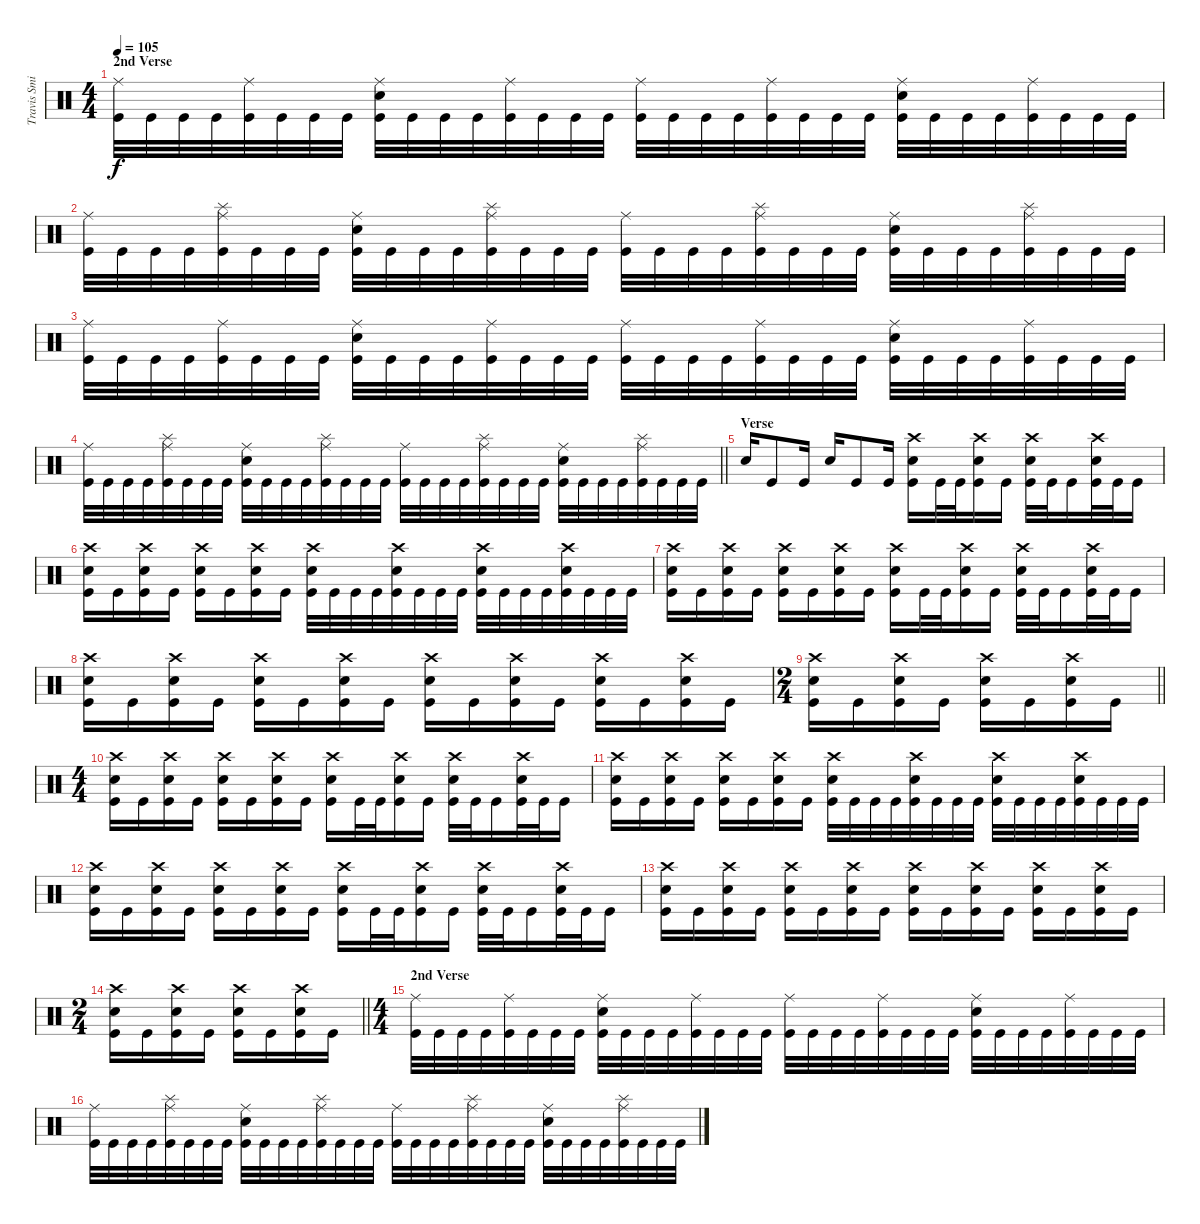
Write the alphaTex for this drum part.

\track ("Travis Smith" "Travis Smi") {instrument percussion}
\staff {score}
\articulation defaults
\ts (4 4)
\section ("" "2nd Verse")
\tempo 105
\clef neutral
\ks c
("Ride (middle)" "Kick (hit)").32{dy f} "Kick (hit)".32 "Kick (hit)".32 "Kick (hit)".32 ("Ride (middle)" "Kick (hit)").32 "Kick (hit)".32 "Kick (hit)".32 "Kick (hit)".32 ("Ride (middle)" "Snare (hit) 2" "Kick (hit)").32 "Kick (hit)".32 "Kick (hit)".32 "Kick (hit)".32 ("Ride (middle)" "Kick (hit)").32 "Kick (hit)".32 "Kick (hit)".32 "Kick (hit)".32 ("Ride (middle)" "Kick (hit)").32 "Kick (hit)".32 "Kick (hit)".32 "Kick (hit)".32 ("Ride (middle)" "Kick (hit)").32 "Kick (hit)".32 "Kick (hit)".32 "Kick (hit)".32 ("Ride (middle)" "Snare (hit) 2" "Kick (hit)").32 "Kick (hit)".32 "Kick (hit)".32 "Kick (hit)".32 ("Ride (middle)" "Kick (hit)").32 "Kick (hit)".32 "Kick (hit)".32 "Kick (hit)".32 |
("Ride (middle)" "Kick (hit)").32 "Kick (hit)".32 "Kick (hit)".32 "Kick (hit)".32 ("Ride (middle)" "Splash (hit)" "Kick (hit)").32 "Kick (hit)".32 "Kick (hit)".32 "Kick (hit)".32 ("Ride (middle)" "Snare (hit) 2" "Kick (hit)").32 "Kick (hit)".32 "Kick (hit)".32 "Kick (hit)".32 ("Ride (middle)" "Splash (hit)" "Kick (hit)").32 "Kick (hit)".32 "Kick (hit)".32 "Kick (hit)".32 ("Ride (middle)" "Kick (hit)").32 "Kick (hit)".32 "Kick (hit)".32 "Kick (hit)".32 ("Ride (middle)" "Splash (hit)" "Kick (hit)").32 "Kick (hit)".32 "Kick (hit)".32 "Kick (hit)".32 ("Ride (middle)" "Snare (hit) 2" "Kick (hit)").32 "Kick (hit)".32 "Kick (hit)".32 "Kick (hit)".32 ("Ride (middle)" "Splash (hit)" "Kick (hit)").32 "Kick (hit)".32 "Kick (hit)".32 "Kick (hit)".32 |
("Ride (middle)" "Kick (hit)").32 "Kick (hit)".32 "Kick (hit)".32 "Kick (hit)".32 ("Ride (middle)" "Kick (hit)").32 "Kick (hit)".32 "Kick (hit)".32 "Kick (hit)".32 ("Ride (middle)" "Snare (hit) 2" "Kick (hit)").32 "Kick (hit)".32 "Kick (hit)".32 "Kick (hit)".32 ("Ride (middle)" "Kick (hit)").32 "Kick (hit)".32 "Kick (hit)".32 "Kick (hit)".32 ("Ride (middle)" "Kick (hit)").32 "Kick (hit)".32 "Kick (hit)".32 "Kick (hit)".32 ("Ride (middle)" "Kick (hit)").32 "Kick (hit)".32 "Kick (hit)".32 "Kick (hit)".32 ("Ride (middle)" "Snare (hit) 2" "Kick (hit)").32 "Kick (hit)".32 "Kick (hit)".32 "Kick (hit)".32 ("Ride (middle)" "Kick (hit)").32 "Kick (hit)".32 "Kick (hit)".32 "Kick (hit)".32 |
\barLineRight lightlight
("Ride (middle)" "Kick (hit)").32 "Kick (hit)".32 "Kick (hit)".32 "Kick (hit)".32 ("Ride (middle)" "Splash (hit)" "Kick (hit)").32 "Kick (hit)".32 "Kick (hit)".32 "Kick (hit)".32 ("Ride (middle)" "Snare (hit) 2" "Kick (hit)").32 "Kick (hit)".32 "Kick (hit)".32 "Kick (hit)".32 ("Ride (middle)" "Splash (hit)" "Kick (hit)").32 "Kick (hit)".32 "Kick (hit)".32 "Kick (hit)".32 ("Ride (middle)" "Kick (hit)").32 "Kick (hit)".32 "Kick (hit)".32 "Kick (hit)".32 ("Ride (middle)" "Splash (hit)" "Kick (hit)").32 "Kick (hit)".32 "Kick (hit)".32 "Kick (hit)".32 ("Ride (middle)" "Snare (hit) 2" "Kick (hit)").32 "Kick (hit)".32 "Kick (hit)".32 "Kick (hit)".32 ("Ride (middle)" "Splash (hit)" "Kick (hit)").32 "Kick (hit)".32 "Kick (hit)".32 "Kick (hit)".32 |
\section ("" "Verse")
"Snare (hit) 2".16 "Kick (hit)".8 "Kick (hit)".16 "Snare (hit) 2".16 "Kick (hit)".8 "Kick (hit)".16 ("Crash high (hit)" "Snare (hit) 2" "Kick (hit)").16 "Kick (hit)".32 "Kick (hit)".32 ("Crash high (hit)" "Snare (hit) 2" "Kick (hit)").16 "Kick (hit)".16 ("Crash high (hit)" "Snare (hit) 2" "Kick (hit)").32 "Kick (hit)".32 "Kick (hit)".16 ("Crash high (hit)" "Snare (hit) 2" "Kick (hit)").32 "Kick (hit)".32 "Kick (hit)".16 |
("Crash high (hit)" "Snare (hit) 2" "Kick (hit)").16 "Kick (hit)".16 ("Crash high (hit)" "Snare (hit) 2" "Kick (hit)").16 "Kick (hit)".16 ("Crash high (hit)" "Snare (hit) 2" "Kick (hit)").16 "Kick (hit)".16 ("Crash high (hit)" "Snare (hit) 2" "Kick (hit)").16 "Kick (hit)".16 ("Crash high (hit)" "Snare (hit) 2" "Kick (hit)").32 "Kick (hit)".32 "Kick (hit)".32 "Kick (hit)".32 ("Crash high (hit)" "Snare (hit) 2" "Kick (hit)").32 "Kick (hit)".32 "Kick (hit)".32 "Kick (hit)".32 ("Crash high (hit)" "Snare (hit) 2" "Kick (hit)").32 "Kick (hit)".32 "Kick (hit)".32 "Kick (hit)".32 ("Crash high (hit)" "Snare (hit) 2" "Kick (hit)").32 "Kick (hit)".32 "Kick (hit)".32 "Kick (hit)".32 |
("Crash high (hit)" "Snare (hit) 2" "Kick (hit)").16 "Kick (hit)".16 ("Crash high (hit)" "Snare (hit) 2" "Kick (hit)").16 "Kick (hit)".16 ("Crash high (hit)" "Snare (hit) 2" "Kick (hit)").16 "Kick (hit)".16 ("Crash high (hit)" "Snare (hit) 2" "Kick (hit)").16 "Kick (hit)".16 ("Crash high (hit)" "Snare (hit) 2" "Kick (hit)").16 "Kick (hit)".32 "Kick (hit)".32 ("Crash high (hit)" "Snare (hit) 2" "Kick (hit)").16 "Kick (hit)".16 ("Crash high (hit)" "Snare (hit) 2" "Kick (hit)").32 "Kick (hit)".32 "Kick (hit)".16 ("Crash high (hit)" "Snare (hit) 2" "Kick (hit)").32 "Kick (hit)".32 "Kick (hit)".16 |
("Crash high (hit)" "Snare (hit) 2" "Kick (hit)").16 "Kick (hit)".16 ("Crash high (hit)" "Snare (hit) 2" "Kick (hit)").16 "Kick (hit)".16 ("Crash high (hit)" "Snare (hit) 2" "Kick (hit)").16 "Kick (hit)".16 ("Crash high (hit)" "Snare (hit) 2" "Kick (hit)").16 "Kick (hit)".16 ("Crash high (hit)" "Snare (hit) 2" "Kick (hit)").16 "Kick (hit)".16 ("Crash high (hit)" "Snare (hit) 2" "Kick (hit)").16 "Kick (hit)".16 ("Crash high (hit)" "Snare (hit) 2" "Kick (hit)").16 "Kick (hit)".16 ("Crash high (hit)" "Snare (hit) 2" "Kick (hit)").16 "Kick (hit)".16 |
\ts (2 4)
\barLineRight lightlight
("Crash high (hit)" "Snare (hit) 2" "Kick (hit)").16 "Kick (hit)".16 ("Crash high (hit)" "Snare (hit) 2" "Kick (hit)").16 "Kick (hit)".16 ("Crash high (hit)" "Snare (hit) 2" "Kick (hit)").16 "Kick (hit)".16 ("Crash high (hit)" "Snare (hit) 2" "Kick (hit)").16 "Kick (hit)".16 |
\ts (4 4)
("Crash high (hit)" "Snare (hit) 2" "Kick (hit)").16 "Kick (hit)".16 ("Crash high (hit)" "Snare (hit) 2" "Kick (hit)").16 "Kick (hit)".16 ("Crash high (hit)" "Snare (hit) 2" "Kick (hit)").16 "Kick (hit)".16 ("Crash high (hit)" "Snare (hit) 2" "Kick (hit)").16 "Kick (hit)".16 ("Crash high (hit)" "Snare (hit) 2" "Kick (hit)").16 "Kick (hit)".32 "Kick (hit)".32 ("Crash high (hit)" "Snare (hit) 2" "Kick (hit)").16 "Kick (hit)".16 ("Crash high (hit)" "Snare (hit) 2" "Kick (hit)").32 "Kick (hit)".32 "Kick (hit)".16 ("Crash high (hit)" "Snare (hit) 2" "Kick (hit)").32 "Kick (hit)".32 "Kick (hit)".16 |
("Crash high (hit)" "Snare (hit) 2" "Kick (hit)").16 "Kick (hit)".16 ("Crash high (hit)" "Snare (hit) 2" "Kick (hit)").16 "Kick (hit)".16 ("Crash high (hit)" "Snare (hit) 2" "Kick (hit)").16 "Kick (hit)".16 ("Crash high (hit)" "Snare (hit) 2" "Kick (hit)").16 "Kick (hit)".16 ("Crash high (hit)" "Snare (hit) 2" "Kick (hit)").32 "Kick (hit)".32 "Kick (hit)".32 "Kick (hit)".32 ("Crash high (hit)" "Snare (hit) 2" "Kick (hit)").32 "Kick (hit)".32 "Kick (hit)".32 "Kick (hit)".32 ("Crash high (hit)" "Snare (hit) 2" "Kick (hit)").32 "Kick (hit)".32 "Kick (hit)".32 "Kick (hit)".32 ("Crash high (hit)" "Snare (hit) 2" "Kick (hit)").32 "Kick (hit)".32 "Kick (hit)".32 "Kick (hit)".32 |
("Crash high (hit)" "Snare (hit) 2" "Kick (hit)").16 "Kick (hit)".16 ("Crash high (hit)" "Snare (hit) 2" "Kick (hit)").16 "Kick (hit)".16 ("Crash high (hit)" "Snare (hit) 2" "Kick (hit)").16 "Kick (hit)".16 ("Crash high (hit)" "Snare (hit) 2" "Kick (hit)").16 "Kick (hit)".16 ("Crash high (hit)" "Snare (hit) 2" "Kick (hit)").16 "Kick (hit)".32 "Kick (hit)".32 ("Crash high (hit)" "Snare (hit) 2" "Kick (hit)").16 "Kick (hit)".16 ("Crash high (hit)" "Snare (hit) 2" "Kick (hit)").32 "Kick (hit)".32 "Kick (hit)".16 ("Crash high (hit)" "Snare (hit) 2" "Kick (hit)").32 "Kick (hit)".32 "Kick (hit)".16 |
("Crash high (hit)" "Snare (hit) 2" "Kick (hit)").16 "Kick (hit)".16 ("Crash high (hit)" "Snare (hit) 2" "Kick (hit)").16 "Kick (hit)".16 ("Crash high (hit)" "Snare (hit) 2" "Kick (hit)").16 "Kick (hit)".16 ("Crash high (hit)" "Snare (hit) 2" "Kick (hit)").16 "Kick (hit)".16 ("Crash high (hit)" "Snare (hit) 2" "Kick (hit)").16 "Kick (hit)".16 ("Crash high (hit)" "Snare (hit) 2" "Kick (hit)").16 "Kick (hit)".16 ("Crash high (hit)" "Snare (hit) 2" "Kick (hit)").16 "Kick (hit)".16 ("Crash high (hit)" "Snare (hit) 2" "Kick (hit)").16 "Kick (hit)".16 |
\ts (2 4)
\barLineRight lightlight
("Crash high (hit)" "Snare (hit) 2" "Kick (hit)").16 "Kick (hit)".16 ("Crash high (hit)" "Snare (hit) 2" "Kick (hit)").16 "Kick (hit)".16 ("Crash high (hit)" "Snare (hit) 2" "Kick (hit)").16 "Kick (hit)".16 ("Crash high (hit)" "Snare (hit) 2" "Kick (hit)").16 "Kick (hit)".16 |
\ts (4 4)
\section ("" "2nd Verse")
("Ride (middle)" "Kick (hit)").32 "Kick (hit)".32 "Kick (hit)".32 "Kick (hit)".32 ("Ride (middle)" "Kick (hit)").32 "Kick (hit)".32 "Kick (hit)".32 "Kick (hit)".32 ("Ride (middle)" "Snare (hit) 2" "Kick (hit)").32 "Kick (hit)".32 "Kick (hit)".32 "Kick (hit)".32 ("Ride (middle)" "Kick (hit)").32 "Kick (hit)".32 "Kick (hit)".32 "Kick (hit)".32 ("Ride (middle)" "Kick (hit)").32 "Kick (hit)".32 "Kick (hit)".32 "Kick (hit)".32 ("Ride (middle)" "Kick (hit)").32 "Kick (hit)".32 "Kick (hit)".32 "Kick (hit)".32 ("Ride (middle)" "Snare (hit) 2" "Kick (hit)").32 "Kick (hit)".32 "Kick (hit)".32 "Kick (hit)".32 ("Ride (middle)" "Kick (hit)").32 "Kick (hit)".32 "Kick (hit)".32 "Kick (hit)".32 |
("Ride (middle)" "Kick (hit)").32 "Kick (hit)".32 "Kick (hit)".32 "Kick (hit)".32 ("Ride (middle)" "Splash (hit)" "Kick (hit)").32 "Kick (hit)".32 "Kick (hit)".32 "Kick (hit)".32 ("Ride (middle)" "Snare (hit) 2" "Kick (hit)").32 "Kick (hit)".32 "Kick (hit)".32 "Kick (hit)".32 ("Ride (middle)" "Splash (hit)" "Kick (hit)").32 "Kick (hit)".32 "Kick (hit)".32 "Kick (hit)".32 ("Ride (middle)" "Kick (hit)").32 "Kick (hit)".32 "Kick (hit)".32 "Kick (hit)".32 ("Ride (middle)" "Splash (hit)" "Kick (hit)").32 "Kick (hit)".32 "Kick (hit)".32 "Kick (hit)".32 ("Ride (middle)" "Snare (hit) 2" "Kick (hit)").32 "Kick (hit)".32 "Kick (hit)".32 "Kick (hit)".32 ("Ride (middle)" "Splash (hit)" "Kick (hit)").32 "Kick (hit)".32 "Kick (hit)".32 "Kick (hit)".32
